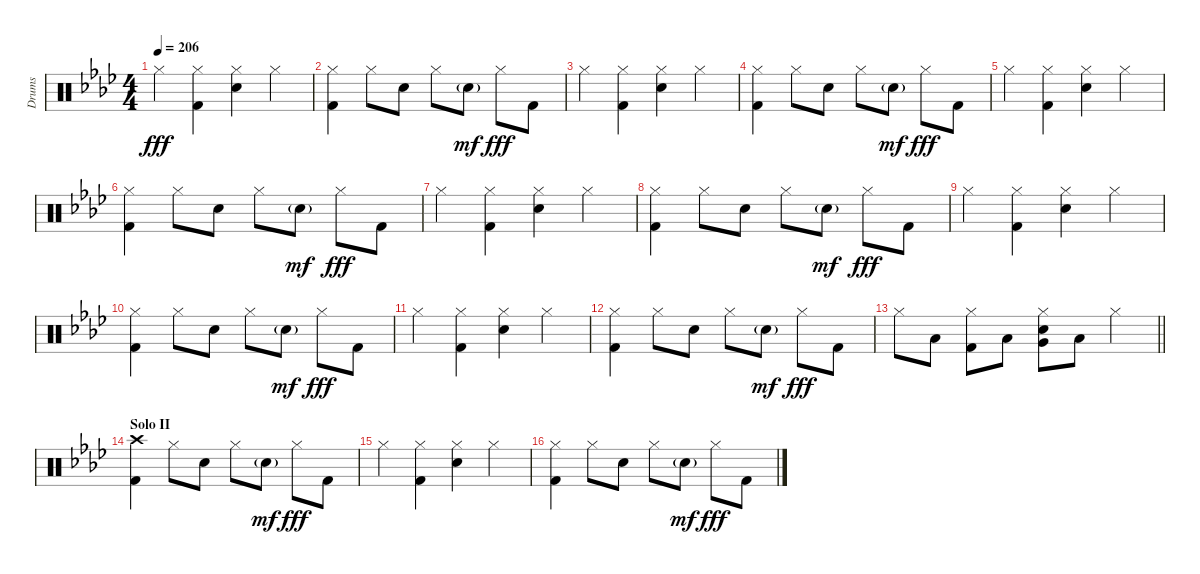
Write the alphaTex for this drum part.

\track ("Drums" "Drums") {instrument percussion}
\staff {score}
\articulation defaults
\ts (4 4)
\tempo 206
\clef neutral
\ks ab "Hi-Hat (closed)".4{dy fff}
("Hi-Hat (closed)" "Kick (hit) 2").4 ("Hi-Hat (closed)" "Electric Snare (hit)").4 "Hi-Hat (closed)".4 |
("Hi-Hat (closed)" "Kick (hit) 2").4 "Hi-Hat (closed)".8 "Electric Snare (hit)".8 "Hi-Hat (closed)".8 "Electric Snare (hit)"{g}.8{dy mf} "Hi-Hat (closed)".8{dy fff} "Kick (hit) 2".8 |
"Hi-Hat (closed)".4 ("Hi-Hat (closed)" "Kick (hit) 2").4 ("Hi-Hat (closed)" "Electric Snare (hit)").4 "Hi-Hat (closed)".4 |
("Hi-Hat (closed)" "Kick (hit) 2").4 "Hi-Hat (closed)".8 "Electric Snare (hit)".8 "Hi-Hat (closed)".8 "Electric Snare (hit)"{g}.8{dy mf} "Hi-Hat (closed)".8{dy fff} "Kick (hit) 2".8 |
"Hi-Hat (closed)".4 ("Hi-Hat (closed)" "Kick (hit) 2").4 ("Hi-Hat (closed)" "Electric Snare (hit)").4 "Hi-Hat (closed)".4 |
("Hi-Hat (closed)" "Kick (hit) 2").4 "Hi-Hat (closed)".8 "Electric Snare (hit)".8 "Hi-Hat (closed)".8 "Electric Snare (hit)"{g}.8{dy mf} "Hi-Hat (closed)".8{dy fff} "Kick (hit) 2".8 |
"Hi-Hat (closed)".4 ("Hi-Hat (closed)" "Kick (hit) 2").4 ("Hi-Hat (closed)" "Electric Snare (hit)").4 "Hi-Hat (closed)".4 |
("Hi-Hat (closed)" "Kick (hit) 2").4 "Hi-Hat (closed)".8 "Electric Snare (hit)".8 "Hi-Hat (closed)".8 "Electric Snare (hit)"{g}.8{dy mf} "Hi-Hat (closed)".8{dy fff} "Kick (hit) 2".8 |
"Hi-Hat (closed)".4 ("Hi-Hat (closed)" "Kick (hit) 2").4 ("Hi-Hat (closed)" "Electric Snare (hit)").4 "Hi-Hat (closed)".4 |
("Hi-Hat (closed)" "Kick (hit) 2").4 "Hi-Hat (closed)".8 "Electric Snare (hit)".8 "Hi-Hat (closed)".8 "Electric Snare (hit)"{g}.8{dy mf} "Hi-Hat (closed)".8{dy fff} "Kick (hit) 2".8 |
"Hi-Hat (closed)".4 ("Hi-Hat (closed)" "Kick (hit) 2").4 ("Hi-Hat (closed)" "Electric Snare (hit)").4 "Hi-Hat (closed)".4 |
("Hi-Hat (closed)" "Kick (hit) 2").4 "Hi-Hat (closed)".8 "Electric Snare (hit)".8 "Hi-Hat (closed)".8 "Electric Snare (hit)"{g}.8{dy mf} "Hi-Hat (closed)".8{dy fff} "Kick (hit) 2".8 |
\barLineRight lightlight "Hi-Hat (closed)".8 "Low Tom (hit)".8
("Hi-Hat (closed)" "Kick (hit) 2").8 "Low Tom (hit)".8 ("Hi-Hat (closed)" "Very Low Tom (hit)" "Electric Snare (hit)").8 "Low Floor Tom (hit)".8 "Hi-Hat (closed)".4 |
\section ("" "Solo II")
("Crash high (hit)" "Kick (hit) 2").4 "Hi-Hat (closed)".8 "Electric Snare (hit)".8 "Hi-Hat (closed)".8 "Electric Snare (hit)"{g}.8{dy mf} "Hi-Hat (closed)".8{dy fff} "Kick (hit) 2".8 |
"Hi-Hat (closed)".4 ("Hi-Hat (closed)" "Kick (hit) 2").4 ("Hi-Hat (closed)" "Electric Snare (hit)").4 "Hi-Hat (closed)".4 |
("Hi-Hat (closed)" "Kick (hit) 2").4 "Hi-Hat (closed)".8 "Electric Snare (hit)".8 "Hi-Hat (closed)".8 "Electric Snare (hit)"{g}.8{dy mf} "Hi-Hat (closed)".8{dy fff} "Kick (hit) 2".8
